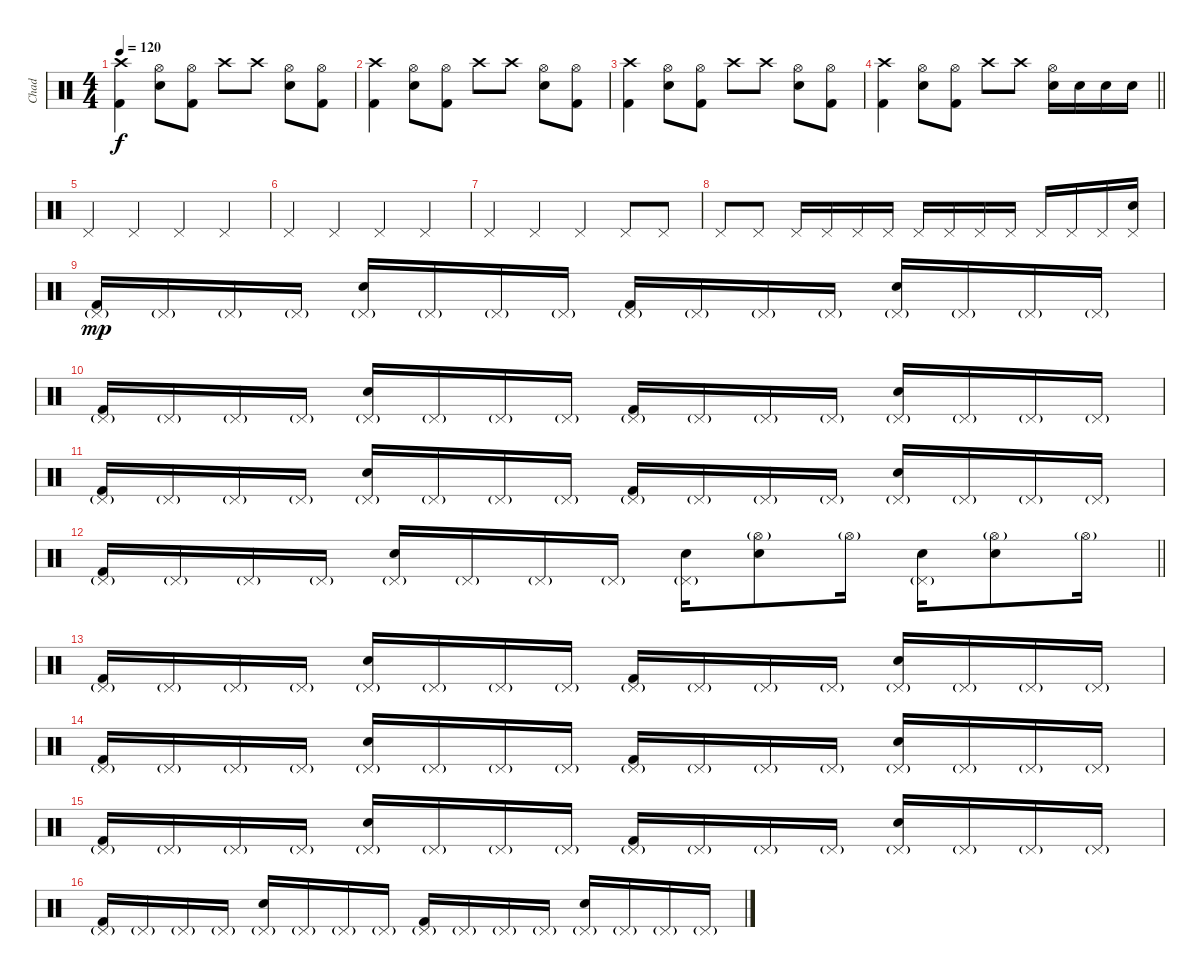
\track ("Chad" "Chad") {instrument percussion}
\staff {score}
\articulation defaults
\ts (4 4)
\tempo 120
\clef neutral
\ks c
("Kick (hit) 2" "Crash high (hit)").4{dy f} ("Electric Snare (hit)" "Hi-Hat (open)").8 ("Kick (hit) 2" "Hi-Hat (open)").8 "Crash high (hit)".8 "Crash high (hit)".8 ("Electric Snare (hit)" "Hi-Hat (open)").8 ("Kick (hit) 2" "Hi-Hat (open)").8 |
("Kick (hit) 2" "Crash high (hit)").4 ("Electric Snare (hit)" "Hi-Hat (open)").8 ("Kick (hit) 2" "Hi-Hat (open)").8 "Crash high (hit)".8 "Crash high (hit)".8 ("Electric Snare (hit)" "Hi-Hat (open)").8 ("Kick (hit) 2" "Hi-Hat (open)").8 |
("Kick (hit) 2" "Crash high (hit)").4 ("Electric Snare (hit)" "Hi-Hat (open)").8 ("Kick (hit) 2" "Hi-Hat (open)").8 "Crash high (hit)".8 "Crash high (hit)".8 ("Electric Snare (hit)" "Hi-Hat (open)").8 ("Kick (hit) 2" "Hi-Hat (open)").8 |
\barLineRight lightlight
("Kick (hit) 2" "Crash high (hit)").4 ("Electric Snare (hit)" "Hi-Hat (open)").8 ("Kick (hit) 2" "Hi-Hat (open)").8 "Crash high (hit)".8 "Crash high (hit)".8 ("Electric Snare (hit)" "Hi-Hat (open)").16 "Electric Snare (hit)".16 "Electric Snare (hit)".16 "Electric Snare (hit)".16 |
"Pedal Hi-Hat (hit)".4 "Pedal Hi-Hat (hit)".4 "Pedal Hi-Hat (hit)".4 "Pedal Hi-Hat (hit)".4 |
"Pedal Hi-Hat (hit)".4 "Pedal Hi-Hat (hit)".4 "Pedal Hi-Hat (hit)".4 "Pedal Hi-Hat (hit)".4 |
"Pedal Hi-Hat (hit)".4 "Pedal Hi-Hat (hit)".4 "Pedal Hi-Hat (hit)".4 "Pedal Hi-Hat (hit)".8 "Pedal Hi-Hat (hit)".8 |
"Pedal Hi-Hat (hit)".8 "Pedal Hi-Hat (hit)".8 "Pedal Hi-Hat (hit)".16 "Pedal Hi-Hat (hit)".16 "Pedal Hi-Hat (hit)".16 "Pedal Hi-Hat (hit)".16 "Pedal Hi-Hat (hit)".16 "Pedal Hi-Hat (hit)".16 "Pedal Hi-Hat (hit)".16 "Pedal Hi-Hat (hit)".16 "Pedal Hi-Hat (hit)".16 "Pedal Hi-Hat (hit)".16 "Pedal Hi-Hat (hit)".16 ("Electric Snare (hit)" "Pedal Hi-Hat (hit)").16 |
("Kick (hit) 2" "Pedal Hi-Hat (hit)"{g}).16{dy mp} "Pedal Hi-Hat (hit)"{g}.16 "Pedal Hi-Hat (hit)"{g}.16 "Pedal Hi-Hat (hit)"{g}.16 ("Electric Snare (hit)" "Pedal Hi-Hat (hit)"{g}).16 "Pedal Hi-Hat (hit)"{g}.16 "Pedal Hi-Hat (hit)"{g}.16 "Pedal Hi-Hat (hit)"{g}.16 ("Kick (hit) 2" "Pedal Hi-Hat (hit)"{g}).16 "Pedal Hi-Hat (hit)"{g}.16 "Pedal Hi-Hat (hit)"{g}.16 "Pedal Hi-Hat (hit)"{g}.16 ("Electric Snare (hit)" "Pedal Hi-Hat (hit)"{g}).16 "Pedal Hi-Hat (hit)"{g}.16 "Pedal Hi-Hat (hit)"{g}.16 "Pedal Hi-Hat (hit)"{g}.16 |
("Kick (hit) 2" "Pedal Hi-Hat (hit)"{g}).16 "Pedal Hi-Hat (hit)"{g}.16 "Pedal Hi-Hat (hit)"{g}.16 "Pedal Hi-Hat (hit)"{g}.16 ("Electric Snare (hit)" "Pedal Hi-Hat (hit)"{g}).16 "Pedal Hi-Hat (hit)"{g}.16 "Pedal Hi-Hat (hit)"{g}.16 "Pedal Hi-Hat (hit)"{g}.16 ("Kick (hit) 2" "Pedal Hi-Hat (hit)"{g}).16 "Pedal Hi-Hat (hit)"{g}.16 "Pedal Hi-Hat (hit)"{g}.16 "Pedal Hi-Hat (hit)"{g}.16 ("Electric Snare (hit)" "Pedal Hi-Hat (hit)"{g}).16 "Pedal Hi-Hat (hit)"{g}.16 "Pedal Hi-Hat (hit)"{g}.16 "Pedal Hi-Hat (hit)"{g}.16 |
("Kick (hit) 2" "Pedal Hi-Hat (hit)"{g}).16 "Pedal Hi-Hat (hit)"{g}.16 "Pedal Hi-Hat (hit)"{g}.16 "Pedal Hi-Hat (hit)"{g}.16 ("Electric Snare (hit)" "Pedal Hi-Hat (hit)"{g}).16 "Pedal Hi-Hat (hit)"{g}.16 "Pedal Hi-Hat (hit)"{g}.16 "Pedal Hi-Hat (hit)"{g}.16 ("Kick (hit) 2" "Pedal Hi-Hat (hit)"{g}).16 "Pedal Hi-Hat (hit)"{g}.16 "Pedal Hi-Hat (hit)"{g}.16 "Pedal Hi-Hat (hit)"{g}.16 ("Electric Snare (hit)" "Pedal Hi-Hat (hit)"{g}).16 "Pedal Hi-Hat (hit)"{g}.16 "Pedal Hi-Hat (hit)"{g}.16 "Pedal Hi-Hat (hit)"{g}.16 |
\barLineRight lightlight
("Kick (hit) 2" "Pedal Hi-Hat (hit)"{g}).16 "Pedal Hi-Hat (hit)"{g}.16 "Pedal Hi-Hat (hit)"{g}.16 "Pedal Hi-Hat (hit)"{g}.16 ("Electric Snare (hit)" "Pedal Hi-Hat (hit)"{g}).16 "Pedal Hi-Hat (hit)"{g}.16 "Pedal Hi-Hat (hit)"{g}.16 "Pedal Hi-Hat (hit)"{g}.16 ("Electric Snare (hit)" "Pedal Hi-Hat (hit)"{g}).16 ("Electric Snare (hit)" "Hi-Hat (open)"{g}).8 "Hi-Hat (open)"{g}.16 ("Electric Snare (hit)" "Pedal Hi-Hat (hit)"{g}).16 ("Electric Snare (hit)" "Hi-Hat (open)"{g}).8 "Hi-Hat (open)"{g}.16 |
("Kick (hit) 2" "Pedal Hi-Hat (hit)"{g}).16 "Pedal Hi-Hat (hit)"{g}.16 "Pedal Hi-Hat (hit)"{g}.16 "Pedal Hi-Hat (hit)"{g}.16 ("Electric Snare (hit)" "Pedal Hi-Hat (hit)"{g}).16 "Pedal Hi-Hat (hit)"{g}.16 "Pedal Hi-Hat (hit)"{g}.16 "Pedal Hi-Hat (hit)"{g}.16 ("Kick (hit) 2" "Pedal Hi-Hat (hit)"{g}).16 "Pedal Hi-Hat (hit)"{g}.16 "Pedal Hi-Hat (hit)"{g}.16 "Pedal Hi-Hat (hit)"{g}.16 ("Electric Snare (hit)" "Pedal Hi-Hat (hit)"{g}).16 "Pedal Hi-Hat (hit)"{g}.16 "Pedal Hi-Hat (hit)"{g}.16 "Pedal Hi-Hat (hit)"{g}.16 |
("Kick (hit) 2" "Pedal Hi-Hat (hit)"{g}).16 "Pedal Hi-Hat (hit)"{g}.16 "Pedal Hi-Hat (hit)"{g}.16 "Pedal Hi-Hat (hit)"{g}.16 ("Electric Snare (hit)" "Pedal Hi-Hat (hit)"{g}).16 "Pedal Hi-Hat (hit)"{g}.16 "Pedal Hi-Hat (hit)"{g}.16 "Pedal Hi-Hat (hit)"{g}.16 ("Kick (hit) 2" "Pedal Hi-Hat (hit)"{g}).16 "Pedal Hi-Hat (hit)"{g}.16 "Pedal Hi-Hat (hit)"{g}.16 "Pedal Hi-Hat (hit)"{g}.16 ("Electric Snare (hit)" "Pedal Hi-Hat (hit)"{g}).16 "Pedal Hi-Hat (hit)"{g}.16 "Pedal Hi-Hat (hit)"{g}.16 "Pedal Hi-Hat (hit)"{g}.16 |
("Kick (hit) 2" "Pedal Hi-Hat (hit)"{g}).16 "Pedal Hi-Hat (hit)"{g}.16 "Pedal Hi-Hat (hit)"{g}.16 "Pedal Hi-Hat (hit)"{g}.16 ("Electric Snare (hit)" "Pedal Hi-Hat (hit)"{g}).16 "Pedal Hi-Hat (hit)"{g}.16 "Pedal Hi-Hat (hit)"{g}.16 "Pedal Hi-Hat (hit)"{g}.16 ("Kick (hit) 2" "Pedal Hi-Hat (hit)"{g}).16 "Pedal Hi-Hat (hit)"{g}.16 "Pedal Hi-Hat (hit)"{g}.16 "Pedal Hi-Hat (hit)"{g}.16 ("Electric Snare (hit)" "Pedal Hi-Hat (hit)"{g}).16 "Pedal Hi-Hat (hit)"{g}.16 "Pedal Hi-Hat (hit)"{g}.16 "Pedal Hi-Hat (hit)"{g}.16 |
("Kick (hit) 2" "Pedal Hi-Hat (hit)"{g}).16 "Pedal Hi-Hat (hit)"{g}.16 "Pedal Hi-Hat (hit)"{g}.16 "Pedal Hi-Hat (hit)"{g}.16 ("Electric Snare (hit)" "Pedal Hi-Hat (hit)"{g}).16 "Pedal Hi-Hat (hit)"{g}.16 "Pedal Hi-Hat (hit)"{g}.16 "Pedal Hi-Hat (hit)"{g}.16 ("Kick (hit) 2" "Pedal Hi-Hat (hit)"{g}).16 "Pedal Hi-Hat (hit)"{g}.16 "Pedal Hi-Hat (hit)"{g}.16 "Pedal Hi-Hat (hit)"{g}.16 ("Electric Snare (hit)" "Pedal Hi-Hat (hit)"{g}).16 "Pedal Hi-Hat (hit)"{g}.16 "Pedal Hi-Hat (hit)"{g}.16 "Pedal Hi-Hat (hit)"{g}.16
